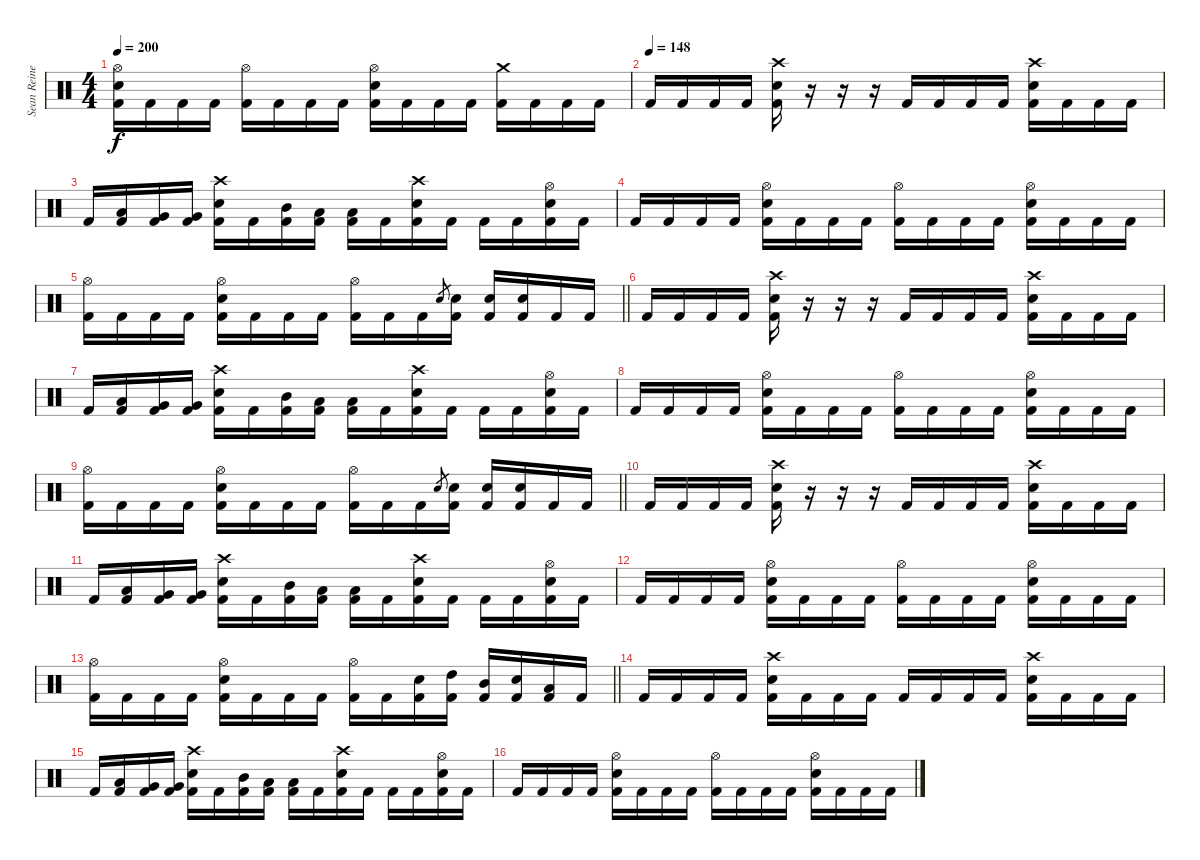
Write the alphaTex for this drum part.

\track ("Sean Reinert" "Sean Reine") {instrument percussion}
\staff {score}
\articulation defaults
\ts (4 4)
\tempo 200
\clef neutral
\ks c
("Hi-Hat (open)" "Electric Snare (hit)" "Kick (hit) 2").16{dy f} "Kick (hit) 2".16 "Kick (hit) 2".16 "Kick (hit) 2".16 ("Hi-Hat (open)" "Kick (hit) 2").16 "Kick (hit) 2".16 "Kick (hit) 2".16 "Kick (hit) 2".16 ("Hi-Hat (open)" "Electric Snare (hit)" "Kick (hit) 2").16 "Kick (hit) 2".16 "Kick (hit) 2".16 "Kick (hit) 2".16 ("Crash medium (hit)" "Kick (hit) 2").16 "Kick (hit) 2".16 "Kick (hit) 2".16 "Kick (hit) 2".16 |
\tempo (148)
"Kick (hit) 2".16 "Kick (hit) 2".16 "Kick (hit) 2".16 "Kick (hit) 2".16 ("Crash high (hit)" "Electric Snare (hit)" "Kick (hit) 2").16 r.16 r.16 r.16 "Kick (hit) 2".16 "Kick (hit) 2".16 "Kick (hit) 2".16 "Kick (hit) 2".16 ("Crash high (hit)" "Electric Snare (hit)" "Kick (hit) 2").16 "Kick (hit) 2".16 "Kick (hit) 2".16 "Kick (hit) 2".16 |
"Kick (hit) 2".16 ("Low Tom (hit)" "Kick (hit) 2").16 ("Very Low Tom (hit)" "Kick (hit) 2").16 ("Very Low Tom (hit)" "Kick (hit) 2").16 ("Crash high (hit)" "Electric Snare (hit)" "Kick (hit) 2").16 "Kick (hit) 2".16 ("Mid Tom (hit)" "Kick (hit) 2").16 ("Low Tom (hit)" "Kick (hit) 2").16 ("Low Tom (hit)" "Kick (hit) 2").16 "Kick (hit) 2".16 ("Crash high (hit)" "Electric Snare (hit)" "Kick (hit) 2").16 "Kick (hit) 2".16 "Kick (hit) 2".16 "Kick (hit) 2".16 ("Hi-Hat (open)" "Electric Snare (hit)" "Kick (hit) 2").16 "Kick (hit) 2".16 |
"Kick (hit) 2".16 "Kick (hit) 2".16 "Kick (hit) 2".16 "Kick (hit) 2".16 ("Hi-Hat (open)" "Electric Snare (hit)" "Kick (hit) 2").16 "Kick (hit) 2".16 "Kick (hit) 2".16 "Kick (hit) 2".16 ("Hi-Hat (open)" "Kick (hit) 2").16 "Kick (hit) 2".16 "Kick (hit) 2".16 "Kick (hit) 2".16 ("Hi-Hat (open)" "Electric Snare (hit)" "Kick (hit) 2").16 "Kick (hit) 2".16 "Kick (hit) 2".16 "Kick (hit) 2".16 |
\barLineRight lightlight
("Hi-Hat (open)" "Kick (hit) 2").16 "Kick (hit) 2".16 "Kick (hit) 2".16 "Kick (hit) 2".16 ("Hi-Hat (open)" "Electric Snare (hit)" "Kick (hit) 2").16 "Kick (hit) 2".16 "Kick (hit) 2".16 "Kick (hit) 2".16 ("Hi-Hat (open)" "Kick (hit) 2").16 "Kick (hit) 2".16 "Kick (hit) 2".16 "Electric Snare (hit)".8{gr} ("Electric Snare (hit)" "Kick (hit) 2").16 ("Electric Snare (hit)" "Kick (hit) 2").16 ("Electric Snare (hit)" "Kick (hit) 2").16 "Kick (hit) 2".16 "Kick (hit) 2".16 |
"Kick (hit) 2".16 "Kick (hit) 2".16 "Kick (hit) 2".16 "Kick (hit) 2".16 ("Crash high (hit)" "Electric Snare (hit)" "Kick (hit) 2").16 r.16 r.16 r.16 "Kick (hit) 2".16 "Kick (hit) 2".16 "Kick (hit) 2".16 "Kick (hit) 2".16 ("Crash high (hit)" "Electric Snare (hit)" "Kick (hit) 2").16 "Kick (hit) 2".16 "Kick (hit) 2".16 "Kick (hit) 2".16 |
"Kick (hit) 2".16 ("Low Tom (hit)" "Kick (hit) 2").16 ("Very Low Tom (hit)" "Kick (hit) 2").16 ("Very Low Tom (hit)" "Kick (hit) 2").16 ("Crash high (hit)" "Electric Snare (hit)" "Kick (hit) 2").16 "Kick (hit) 2".16 ("Mid Tom (hit)" "Kick (hit) 2").16 ("Low Tom (hit)" "Kick (hit) 2").16 ("Low Tom (hit)" "Kick (hit) 2").16 "Kick (hit) 2".16 ("Crash high (hit)" "Electric Snare (hit)" "Kick (hit) 2").16 "Kick (hit) 2".16 "Kick (hit) 2".16 "Kick (hit) 2".16 ("Hi-Hat (open)" "Electric Snare (hit)" "Kick (hit) 2").16 "Kick (hit) 2".16 |
"Kick (hit) 2".16 "Kick (hit) 2".16 "Kick (hit) 2".16 "Kick (hit) 2".16 ("Hi-Hat (open)" "Electric Snare (hit)" "Kick (hit) 2").16 "Kick (hit) 2".16 "Kick (hit) 2".16 "Kick (hit) 2".16 ("Hi-Hat (open)" "Kick (hit) 2").16 "Kick (hit) 2".16 "Kick (hit) 2".16 "Kick (hit) 2".16 ("Hi-Hat (open)" "Electric Snare (hit)" "Kick (hit) 2").16 "Kick (hit) 2".16 "Kick (hit) 2".16 "Kick (hit) 2".16 |
\barLineRight lightlight
("Hi-Hat (open)" "Kick (hit) 2").16 "Kick (hit) 2".16 "Kick (hit) 2".16 "Kick (hit) 2".16 ("Hi-Hat (open)" "Electric Snare (hit)" "Kick (hit) 2").16 "Kick (hit) 2".16 "Kick (hit) 2".16 "Kick (hit) 2".16 ("Hi-Hat (open)" "Kick (hit) 2").16 "Kick (hit) 2".16 "Kick (hit) 2".16 "Electric Snare (hit)".8{gr} ("Electric Snare (hit)" "Kick (hit) 2").16 ("Electric Snare (hit)" "Kick (hit) 2").16 ("Electric Snare (hit)" "Kick (hit) 2").16 "Kick (hit) 2".16 "Kick (hit) 2".16 |
"Kick (hit) 2".16 "Kick (hit) 2".16 "Kick (hit) 2".16 "Kick (hit) 2".16 ("Crash high (hit)" "Electric Snare (hit)" "Kick (hit) 2").16 r.16 r.16 r.16 "Kick (hit) 2".16 "Kick (hit) 2".16 "Kick (hit) 2".16 "Kick (hit) 2".16 ("Crash high (hit)" "Electric Snare (hit)" "Kick (hit) 2").16 "Kick (hit) 2".16 "Kick (hit) 2".16 "Kick (hit) 2".16 |
"Kick (hit) 2".16 ("Low Tom (hit)" "Kick (hit) 2").16 ("Very Low Tom (hit)" "Kick (hit) 2").16 ("Very Low Tom (hit)" "Kick (hit) 2").16 ("Crash high (hit)" "Electric Snare (hit)" "Kick (hit) 2").16 "Kick (hit) 2".16 ("Mid Tom (hit)" "Kick (hit) 2").16 ("Low Tom (hit)" "Kick (hit) 2").16 ("Low Tom (hit)" "Kick (hit) 2").16 "Kick (hit) 2".16 ("Crash high (hit)" "Electric Snare (hit)" "Kick (hit) 2").16 "Kick (hit) 2".16 "Kick (hit) 2".16 "Kick (hit) 2".16 ("Hi-Hat (open)" "Electric Snare (hit)" "Kick (hit) 2").16 "Kick (hit) 2".16 |
"Kick (hit) 2".16 "Kick (hit) 2".16 "Kick (hit) 2".16 "Kick (hit) 2".16 ("Hi-Hat (open)" "Electric Snare (hit)" "Kick (hit) 2").16 "Kick (hit) 2".16 "Kick (hit) 2".16 "Kick (hit) 2".16 ("Hi-Hat (open)" "Kick (hit) 2").16 "Kick (hit) 2".16 "Kick (hit) 2".16 "Kick (hit) 2".16 ("Hi-Hat (open)" "Electric Snare (hit)" "Kick (hit) 2").16 "Kick (hit) 2".16 "Kick (hit) 2".16 "Kick (hit) 2".16 |
\barLineRight lightlight
("Hi-Hat (open)" "Kick (hit) 2").16 "Kick (hit) 2".16 "Kick (hit) 2".16 "Kick (hit) 2".16 ("Hi-Hat (open)" "Electric Snare (hit)" "Kick (hit) 2").16 "Kick (hit) 2".16 "Kick (hit) 2".16 "Kick (hit) 2".16 ("Hi-Hat (open)" "Kick (hit) 2").16 "Kick (hit) 2".16 ("Electric Snare (hit)" "Kick (hit) 2").16 ("High Tom (hit)" "Kick (hit) 2").16 ("Mid Tom (hit)" "Kick (hit) 2").16 ("Electric Snare (hit)" "Kick (hit) 2").16 ("Low Tom (hit)" "Kick (hit) 2").16 "Kick (hit) 2".16 |
"Kick (hit) 2".16 "Kick (hit) 2".16 "Kick (hit) 2".16 "Kick (hit) 2".16 ("Crash high (hit)" "Electric Snare (hit)" "Kick (hit) 2").16 "Kick (hit) 2".16 "Kick (hit) 2".16 "Kick (hit) 2".16 "Kick (hit) 2".16 "Kick (hit) 2".16 "Kick (hit) 2".16 "Kick (hit) 2".16 ("Crash high (hit)" "Electric Snare (hit)" "Kick (hit) 2").16 "Kick (hit) 2".16 "Kick (hit) 2".16 "Kick (hit) 2".16 |
"Kick (hit) 2".16 ("Low Tom (hit)" "Kick (hit) 2").16 ("Very Low Tom (hit)" "Kick (hit) 2").16 ("Very Low Tom (hit)" "Kick (hit) 2").16 ("Crash high (hit)" "Electric Snare (hit)" "Kick (hit) 2").16 "Kick (hit) 2".16 ("Mid Tom (hit)" "Kick (hit) 2").16 ("Low Tom (hit)" "Kick (hit) 2").16 ("Low Tom (hit)" "Kick (hit) 2").16 "Kick (hit) 2".16 ("Crash high (hit)" "Electric Snare (hit)" "Kick (hit) 2").16 "Kick (hit) 2".16 "Kick (hit) 2".16 "Kick (hit) 2".16 ("Hi-Hat (open)" "Electric Snare (hit)" "Kick (hit) 2").16 "Kick (hit) 2".16 |
"Kick (hit) 2".16 "Kick (hit) 2".16 "Kick (hit) 2".16 "Kick (hit) 2".16 ("Hi-Hat (open)" "Electric Snare (hit)" "Kick (hit) 2").16 "Kick (hit) 2".16 "Kick (hit) 2".16 "Kick (hit) 2".16 ("Hi-Hat (open)" "Kick (hit) 2").16 "Kick (hit) 2".16 "Kick (hit) 2".16 "Kick (hit) 2".16 ("Hi-Hat (open)" "Electric Snare (hit)" "Kick (hit) 2").16 "Kick (hit) 2".16 "Kick (hit) 2".16 "Kick (hit) 2".16
